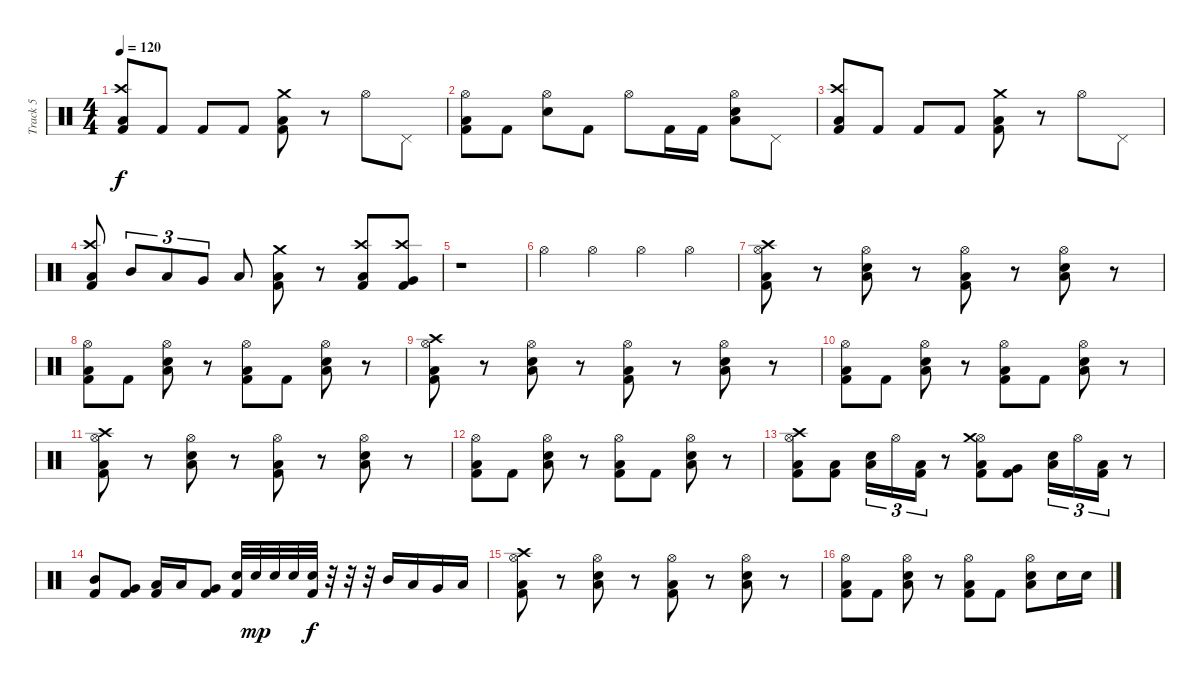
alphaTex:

\track ("Track 5" "Track 5") {instrument percussion}
\staff {score}
\articulation defaults
\ts (4 4)
\tempo 120
\clef neutral
\ks c
("Kick (hit) 2" "Crash high (hit)" "Low Floor Tom (hit)").8{dy f} "Kick (hit) 2".8 "Kick (hit) 2".8 "Kick (hit) 2".8 ("Kick (hit) 2" "Crash medium (hit)" "Low Floor Tom (hit)").8 r.8 "Hi-Hat (open)".8 "Pedal Hi-Hat (hit)".8 |
("Kick (hit) 2" "Hi-Hat (open)" "Low Floor Tom (hit)").8 "Kick (hit) 2".8 ("Snare (hit) 2" "Hi-Hat (open)").8 "Kick (hit) 2".8 "Hi-Hat (open)".8 "Kick (hit) 2".16 "Kick (hit) 2".16 ("Snare (hit) 2" "Hi-Hat (open)" "Low Tom (hit)").8 "Pedal Hi-Hat (hit)".8 |
("Kick (hit) 2" "Crash high (hit)" "Low Floor Tom (hit)").8 "Kick (hit) 2".8 "Kick (hit) 2".8 "Kick (hit) 2".8 ("Kick (hit) 2" "Crash medium (hit)" "Low Floor Tom (hit)").8 r.8 "Hi-Hat (open)".8 "Pedal Hi-Hat (hit)".8 |
("Low Tom (hit)" "Kick (hit) 2" "Crash high (hit)").8 "Mid Tom (hit)".8{tu (3 2)} "Low Tom (hit)".8{tu (3 2)} "Very Low Tom (hit)".8{tu (3 2)} "Low Floor Tom (hit)".8 ("Kick (hit) 2" "Low Floor Tom (hit)" "Crash medium (hit)").8 r.8 ("Kick (hit) 2" "Crash high (hit)" "Low Tom (hit)").8 ("Kick (hit) 2" "Crash high (hit)" "Very Low Tom (hit)").8 |
r.1 |
"Hi-Hat (open)".4 "Hi-Hat (open)".4 "Hi-Hat (open)".4 "Hi-Hat (open)".4 |
("Kick (hit) 2" "Hi-Hat (open)" "Low Floor Tom (hit)" "Crash high (hit)").8 r.8 ("Snare (hit) 2" "Hi-Hat (open)" "Low Tom (hit)").8 r.8 ("Kick (hit) 2" "Hi-Hat (open)" "Low Floor Tom (hit)").8 r.8 ("Snare (hit) 2" "Hi-Hat (open)" "Low Tom (hit)").8 r.8 |
("Kick (hit) 2" "Hi-Hat (open)" "Low Floor Tom (hit)").8 "Kick (hit) 2".8 ("Snare (hit) 2" "Hi-Hat (open)" "Low Tom (hit)").8 r.8 ("Kick (hit) 2" "Hi-Hat (open)" "Low Floor Tom (hit)").8 "Kick (hit) 2".8 ("Snare (hit) 2" "Hi-Hat (open)" "Low Tom (hit)").8 r.8 |
("Kick (hit) 2" "Hi-Hat (open)" "Low Floor Tom (hit)" "Crash high (hit)").8 r.8 ("Snare (hit) 2" "Hi-Hat (open)" "Low Tom (hit)").8 r.8 ("Kick (hit) 2" "Hi-Hat (open)" "Low Floor Tom (hit)").8 r.8 ("Snare (hit) 2" "Hi-Hat (open)" "Low Tom (hit)").8 r.8 |
("Kick (hit) 2" "Hi-Hat (open)" "Low Floor Tom (hit)").8 "Kick (hit) 2".8 ("Snare (hit) 2" "Hi-Hat (open)" "Low Tom (hit)").8 r.8 ("Kick (hit) 2" "Hi-Hat (open)" "Low Floor Tom (hit)").8 "Kick (hit) 2".8 ("Snare (hit) 2" "Hi-Hat (open)" "Low Tom (hit)").8 r.8 |
("Kick (hit) 2" "Hi-Hat (open)" "Low Floor Tom (hit)" "Crash high (hit)").8 r.8 ("Snare (hit) 2" "Hi-Hat (open)" "Low Tom (hit)").8 r.8 ("Kick (hit) 2" "Hi-Hat (open)" "Low Floor Tom (hit)").8 r.8 ("Snare (hit) 2" "Hi-Hat (open)" "Low Tom (hit)").8 r.8 |
("Kick (hit) 2" "Hi-Hat (open)" "Low Floor Tom (hit)").8 "Kick (hit) 2".8 ("Snare (hit) 2" "Hi-Hat (open)" "Low Tom (hit)").8 r.8 ("Kick (hit) 2" "Hi-Hat (open)" "Low Floor Tom (hit)").8 "Kick (hit) 2".8 ("Snare (hit) 2" "Hi-Hat (open)" "Low Tom (hit)").8 r.8 |
("Kick (hit) 2" "Hi-Hat (open)" "Low Floor Tom (hit)" "Crash high (hit)").8 ("Kick (hit) 2" "Low Tom (hit)").8 ("Snare (hit) 2" "Low Tom (hit)").16{tu (3 2)} "Hi-Hat (open)".16{tu (3 2)} ("Kick (hit) 2" "Low Tom (hit)").16{tu (3 2)} r.8 ("Kick (hit) 2" "Hi-Hat (open)" "Low Floor Tom (hit)" "Crash medium (hit)").8 ("Kick (hit) 2" "Very Low Tom (hit)").8 ("Snare (hit) 2" "Low Tom (hit)").16{tu (3 2)} "Hi-Hat (open)".16{tu (3 2)} ("Kick (hit) 2" "Low Tom (hit)").16{tu (3 2)} r.8 |
("Mid Tom (hit)" "Kick (hit) 2").8 ("Very Low Tom (hit)" "Kick (hit) 2").8 ("Low Tom (hit)" "Kick (hit) 2").16 "Low Tom (hit)".16 ("Very Low Tom (hit)" "Kick (hit) 2").8 ("Electric Snare (hit)" "Kick (hit) 2").32 "Electric Snare (hit)".32{dy mp} "Electric Snare (hit)".32 "Electric Snare (hit)".32 ("Electric Snare (hit)" "Kick (hit) 2").32{dy f} r.32 r.32 r.32 "Mid Tom (hit)".16 "Low Tom (hit)".16 "Very Low Tom (hit)".16 "Low Floor Tom (hit)".16 |
("Kick (hit) 2" "Hi-Hat (open)" "Low Floor Tom (hit)" "Crash high (hit)").8 r.8 ("Snare (hit) 2" "Hi-Hat (open)" "Low Tom (hit)").8 r.8 ("Kick (hit) 2" "Hi-Hat (open)" "Low Floor Tom (hit)").8 r.8 ("Snare (hit) 2" "Hi-Hat (open)" "Low Tom (hit)").8 r.8 |
("Kick (hit) 2" "Hi-Hat (open)" "Low Floor Tom (hit)").8 "Kick (hit) 2".8 ("Snare (hit) 2" "Hi-Hat (open)" "Low Tom (hit)").8 r.8 ("Kick (hit) 2" "Hi-Hat (open)" "Low Floor Tom (hit)").8 "Kick (hit) 2".8 ("Snare (hit) 2" "Hi-Hat (open)" "Low Tom (hit)").8 "Electric Snare (hit)".16 "Electric Snare (hit)".16
